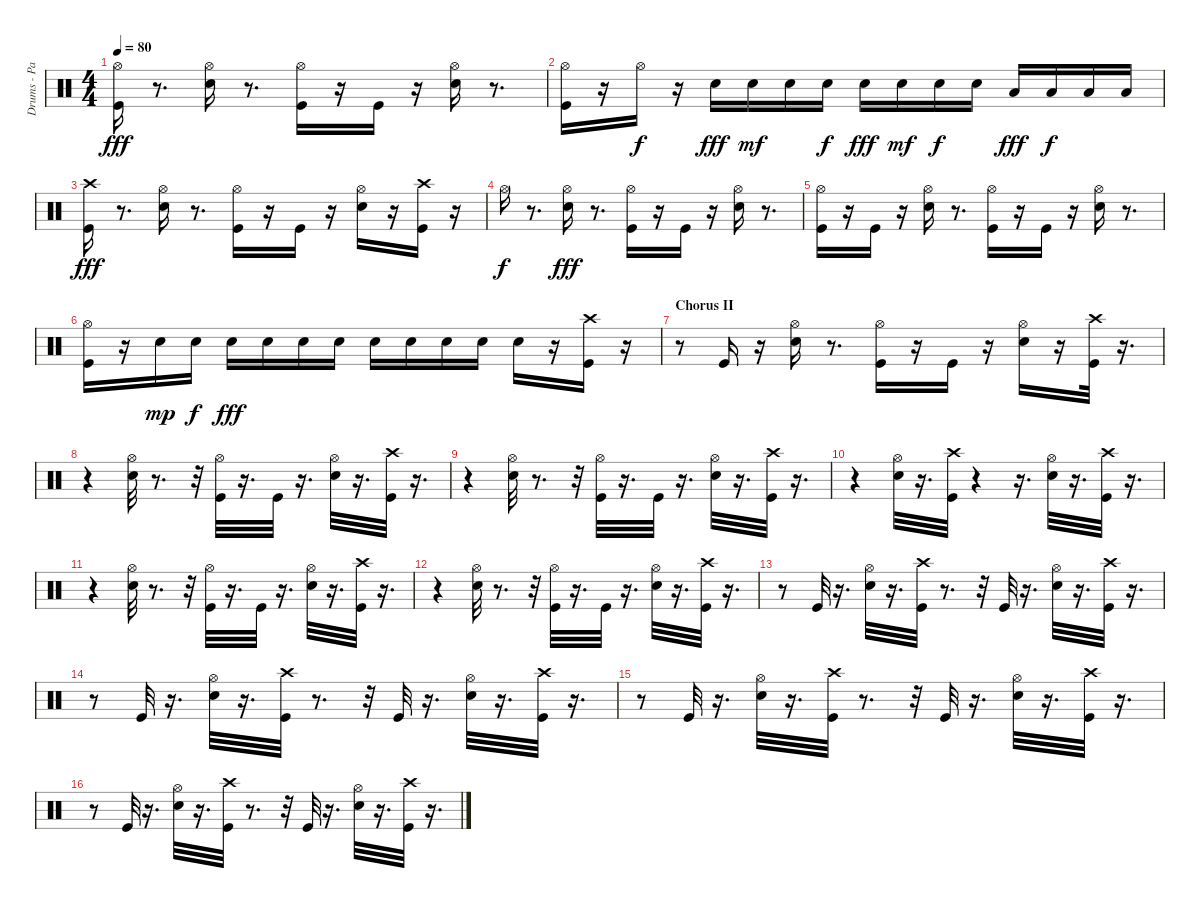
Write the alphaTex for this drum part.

\track ("Drums - Paice" "Drums - Pa") {instrument percussion}
\staff {score}
\articulation defaults
\ts (4 4)
\tempo 80
\clef neutral
\ks c
("Hi-Hat (open)" "Kick (hit)").16{dy fff} r.8{d} ("Hi-Hat (open)" "Snare (hit) 2").16 r.8{d} ("Kick (hit)" "Hi-Hat (open)").16 r.16 "Kick (hit)".16 r.16 ("Snare (hit) 2" "Hi-Hat (open)").16 r.8{d} |
("Hi-Hat (open)" "Kick (hit)").16 r.16 "Hi-Hat (open)".16{dy f} r.16 "Snare (hit) 2".16{dy fff} "Snare (hit) 2".16{dy mf} "Snare (hit) 2".16 "Snare (hit) 2".16{dy f} "Snare (hit) 2".16{dy fff} "Snare (hit) 2".16{dy mf} "Snare (hit) 2".16{dy f} "Snare (hit) 2".16 "Low Tom (hit)".16{dy fff} "Low Tom (hit)".16{dy f} "Low Tom (hit)".16 "Low Tom (hit)".16 |
("Crash high (hit)" "Kick (hit)").16{dy fff} r.8{d} ("Snare (hit) 2" "Hi-Hat (open)").16 r.8{d} ("Hi-Hat (open)" "Kick (hit)").16 r.16 "Kick (hit)".16 r.16 ("Hi-Hat (open)" "Snare (hit) 2").16 r.16 ("Crash high (hit)" "Kick (hit)").16 r.16 |
"Hi-Hat (open)".16{dy f} r.8{d} ("Hi-Hat (open)" "Snare (hit) 2").16{dy fff} r.8{d} ("Kick (hit)" "Hi-Hat (open)").16 r.16 "Kick (hit)".16 r.16 ("Hi-Hat (open)" "Snare (hit) 2").16 r.8{d} |
("Kick (hit)" "Hi-Hat (open)").16 r.16 "Kick (hit)".16 r.16 ("Snare (hit) 2" "Hi-Hat (open)").16 r.8{d} ("Kick (hit)" "Hi-Hat (open)").16 r.16 "Kick (hit)".16 r.16 ("Hi-Hat (open)" "Snare (hit) 2").16 r.8{d} |
("Kick (hit)" "Hi-Hat (open)").16 r.16 "Snare (hit) 2".16{dy mp} "Snare (hit) 2".16{dy f} "Snare (hit) 2".16{dy fff} "Snare (hit) 2".16 "Snare (hit) 2".16 "Snare (hit) 2".16 "Snare (hit) 2".16 "Snare (hit) 2".16 "Snare (hit) 2".16 "Snare (hit) 2".16 "Snare (hit) 2".16 r.16 ("Crash high (hit)" "Kick (hit)").16 r.16 |
\section ("" "Chorus II")
r.8 "Kick (hit)".16 r.16 ("Hi-Hat (open)" "Snare (hit) 2").16 r.8{d} ("Hi-Hat (open)" "Kick (hit)").16 r.16 "Kick (hit)".16 r.16 ("Snare (hit) 2" "Hi-Hat (open)").16 r.16 ("Kick (hit)" "Crash high (hit)").32 r.16{d} |
r.4 ("Snare (hit) 2" "Hi-Hat (open)").32 r.8{d} r.32 ("Hi-Hat (open)" "Kick (hit)").32 r.16{d} "Kick (hit)".32 r.16{d} ("Snare (hit) 2" "Hi-Hat (open)").32 r.16{d} ("Crash high (hit)" "Kick (hit)").32 r.16{d} |
r.4 ("Snare (hit) 2" "Hi-Hat (open)").32 r.8{d} r.32 ("Kick (hit)" "Hi-Hat (open)").32 r.16{d} "Kick (hit)".32 r.16{d} ("Hi-Hat (open)" "Snare (hit) 2").32 r.16{d} ("Crash high (hit)" "Kick (hit)").32 r.16{d} |
r.4 ("Snare (hit) 2" "Hi-Hat (open)").32 r.16{d} ("Crash high (hit)" "Kick (hit)").32 r.4 r.16{d} ("Snare (hit) 2" "Hi-Hat (open)").32 r.16{d} ("Crash high (hit)" "Kick (hit)").32 r.16{d} |
r.4 ("Hi-Hat (open)" "Snare (hit) 2").32 r.8{d} r.32 ("Hi-Hat (open)" "Kick (hit)").32 r.16{d} "Kick (hit)".32 r.16{d} ("Hi-Hat (open)" "Snare (hit) 2").32 r.16{d} ("Crash high (hit)" "Kick (hit)").32 r.16{d} |
r.4 ("Hi-Hat (open)" "Snare (hit) 2").32 r.8{d} r.32 ("Hi-Hat (open)" "Kick (hit)").32 r.16{d} "Kick (hit)".32 r.16{d} ("Snare (hit) 2" "Hi-Hat (open)").32 r.16{d} ("Crash high (hit)" "Kick (hit)").32 r.16{d} |
r.8 "Kick (hit)".32 r.16{d} ("Hi-Hat (open)" "Snare (hit) 2").32 r.16{d} ("Kick (hit)" "Crash high (hit)").32 r.8{d} r.32 "Kick (hit)".32 r.16{d} ("Hi-Hat (open)" "Snare (hit) 2").32 r.16{d} ("Crash high (hit)" "Kick (hit)").32 r.16{d} |
r.8 "Kick (hit)".32 r.16{d} ("Snare (hit) 2" "Hi-Hat (open)").32 r.16{d} ("Crash high (hit)" "Kick (hit)").32 r.8{d} r.32 "Kick (hit)".32 r.16{d} ("Hi-Hat (open)" "Snare (hit) 2").32 r.16{d} ("Kick (hit)" "Crash high (hit)").32 r.16{d} |
r.8 "Kick (hit)".32 r.16{d} ("Snare (hit) 2" "Hi-Hat (open)").32 r.16{d} ("Kick (hit)" "Crash high (hit)").32 r.8{d} r.32 "Kick (hit)".32 r.16{d} ("Snare (hit) 2" "Hi-Hat (open)").32 r.16{d} ("Kick (hit)" "Crash high (hit)").32 r.16{d} |
r.8 "Kick (hit)".32 r.16{d} ("Hi-Hat (open)" "Snare (hit) 2").32 r.16{d} ("Crash high (hit)" "Kick (hit)").32 r.8{d} r.32 "Kick (hit)".32 r.16{d} ("Hi-Hat (open)" "Snare (hit) 2").32 r.16{d} ("Kick (hit)" "Crash high (hit)").32 r.16{d}
